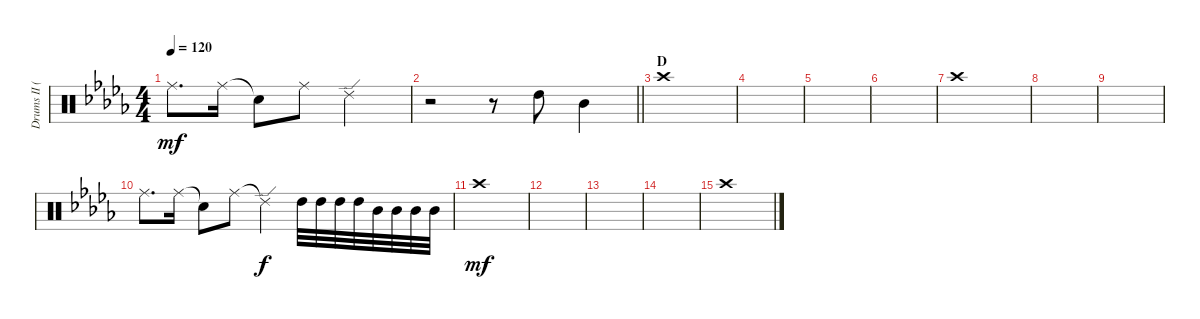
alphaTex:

\track ("Drums II (Tainaka Ritsu)" "Drums II (") {instrument percussion}
\staff {score}
\articulation defaults
\ts (4 4)
\tempo 120
\clef neutral
\ks db "Ride (middle)".8{d dy mf} "Ride (middle)".16 "Snare (hit)"{t}.8 "Ride (middle)".8 "Ride (edge) 2".2
|
\barLineRight lightlight
r.2 r.8 "High Tom (hit)".8 "Mid Tom (hit)".4 |
\section ("" "D")
"Crash high (hit)".1 |
|
|
|
"Crash high (hit)".1 |
|
|
"Ride (middle)".8{d} "Ride (middle)".16 "Snare (hit)"{t}.8 "Ride (middle)".8 "Ride (edge) 2"{t}.4{dy f} "High Tom (hit)".32 "High Tom (hit)".32 "High Tom (hit)".32 "High Tom (hit)".32 "Mid Tom (hit)".32 "Mid Tom (hit)".32 "Mid Tom (hit)".32 "Mid Tom (hit)".32 |
"Crash high (hit)".1{dy mf} |
|
|
|
"Crash high (hit)".1
